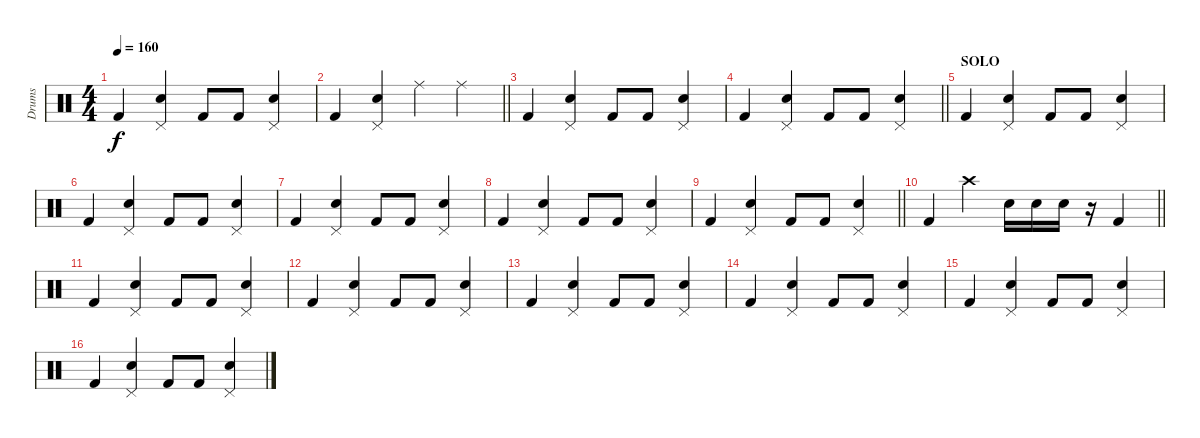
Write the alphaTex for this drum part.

\track ("Drums" "Drums") {instrument percussion}
\staff {score}
\articulation defaults
\ts (4 4)
\tempo 160
\clef neutral
\ks c "Kick (hit) 2".4{dy f}
("Pedal Hi-Hat (hit)" "Electric Snare (hit)").4 "Kick (hit) 2".8 "Kick (hit) 2".8 ("Pedal Hi-Hat (hit)" "Electric Snare (hit)").4 |
\barLineRight lightlight "Kick (hit) 2".4
("Pedal Hi-Hat (hit)" "Electric Snare (hit)").4 "Ride (middle)".4 "Ride (middle)".4 |
"Kick (hit) 2".4 ("Pedal Hi-Hat (hit)" "Electric Snare (hit)").4 "Kick (hit) 2".8 "Kick (hit) 2".8 ("Pedal Hi-Hat (hit)" "Electric Snare (hit)").4 |
\barLineRight lightlight "Kick (hit) 2".4
("Pedal Hi-Hat (hit)" "Electric Snare (hit)").4 "Kick (hit) 2".8 "Kick (hit) 2".8 ("Pedal Hi-Hat (hit)" "Electric Snare (hit)").4 |
\section ("" "SOLO")
"Kick (hit) 2".4 ("Pedal Hi-Hat (hit)" "Electric Snare (hit)").4 "Kick (hit) 2".8 "Kick (hit) 2".8 ("Pedal Hi-Hat (hit)" "Electric Snare (hit)").4 |
"Kick (hit) 2".4 ("Pedal Hi-Hat (hit)" "Electric Snare (hit)").4 "Kick (hit) 2".8 "Kick (hit) 2".8 ("Pedal Hi-Hat (hit)" "Electric Snare (hit)").4 |
"Kick (hit) 2".4 ("Pedal Hi-Hat (hit)" "Electric Snare (hit)").4 "Kick (hit) 2".8 "Kick (hit) 2".8 ("Pedal Hi-Hat (hit)" "Electric Snare (hit)").4 |
"Kick (hit) 2".4 ("Pedal Hi-Hat (hit)" "Electric Snare (hit)").4 "Kick (hit) 2".8 "Kick (hit) 2".8 ("Pedal Hi-Hat (hit)" "Electric Snare (hit)").4 |
\barLineRight lightlight "Kick (hit) 2".4
("Pedal Hi-Hat (hit)" "Electric Snare (hit)").4 "Kick (hit) 2".8 "Kick (hit) 2".8 ("Pedal Hi-Hat (hit)" "Electric Snare (hit)").4 |
\barLineRight lightlight "Kick (hit) 2".4 "Crash high (hit)".4 "Snare (hit) 2".16 "Snare (hit) 2".16 "Snare (hit) 2".16
r.16 "Kick (hit) 2".4 |
"Kick (hit) 2".4 ("Pedal Hi-Hat (hit)" "Electric Snare (hit)").4 "Kick (hit) 2".8 "Kick (hit) 2".8 ("Pedal Hi-Hat (hit)" "Electric Snare (hit)").4 |
"Kick (hit) 2".4 ("Pedal Hi-Hat (hit)" "Electric Snare (hit)").4 "Kick (hit) 2".8 "Kick (hit) 2".8 ("Pedal Hi-Hat (hit)" "Electric Snare (hit)").4 |
"Kick (hit) 2".4 ("Pedal Hi-Hat (hit)" "Electric Snare (hit)").4 "Kick (hit) 2".8 "Kick (hit) 2".8 ("Pedal Hi-Hat (hit)" "Electric Snare (hit)").4 |
"Kick (hit) 2".4 ("Pedal Hi-Hat (hit)" "Electric Snare (hit)").4 "Kick (hit) 2".8 "Kick (hit) 2".8 ("Pedal Hi-Hat (hit)" "Electric Snare (hit)").4 |
"Kick (hit) 2".4 ("Pedal Hi-Hat (hit)" "Electric Snare (hit)").4 "Kick (hit) 2".8 "Kick (hit) 2".8 ("Pedal Hi-Hat (hit)" "Electric Snare (hit)").4 |
"Kick (hit) 2".4 ("Pedal Hi-Hat (hit)" "Electric Snare (hit)").4 "Kick (hit) 2".8 "Kick (hit) 2".8 ("Pedal Hi-Hat (hit)" "Electric Snare (hit)").4
